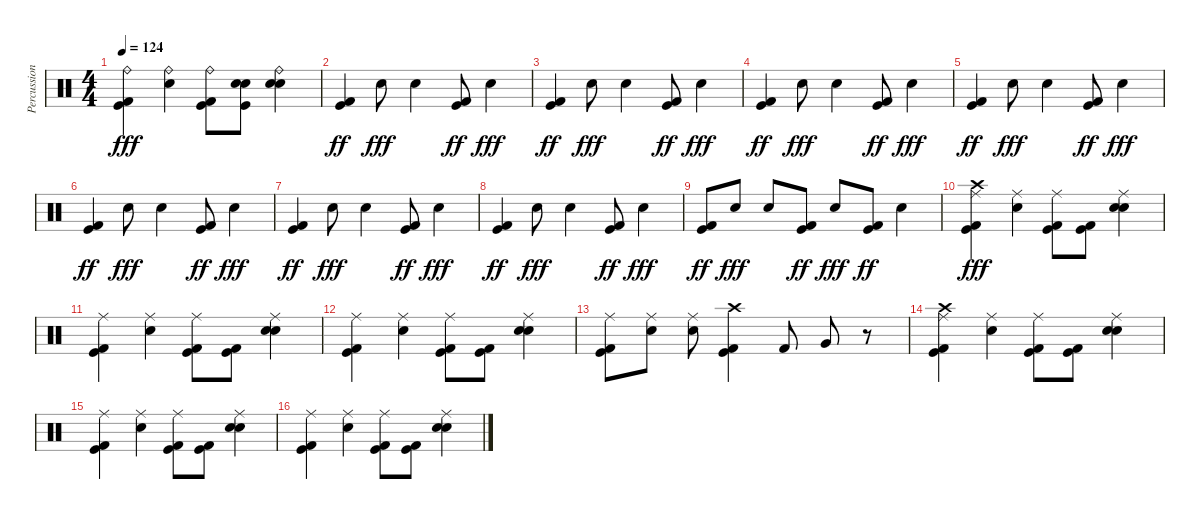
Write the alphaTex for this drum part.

\track ("Percussion" "Percussion") {instrument percussion}
\staff {score}
\articulation defaults
\ts (4 4)
\tempo 124
\clef neutral
\ks c
("Ride (bell)" "Kick (hit) 2" "Kick (hit)").4{dy fff} ("Ride (bell)" "Snare (hit) 2").4 ("Ride (bell)" "Kick (hit) 2" "Kick (hit)").8 ("Snare (hit) 2" "Kick (hit)" "Electric Snare (hit)").8 ("Ride (bell)" "Snare (hit) 2" "Electric Snare (hit)").4 |
("Kick (hit) 2" "Kick (hit)").4{dy ff} "Hand Clap (hit)".8{dy fff} "Hand Clap (hit)".4 ("Kick (hit) 2" "Kick (hit)").8{dy ff} "Hand Clap (hit)".4{dy fff} |
("Kick (hit) 2" "Kick (hit)").4{dy ff} "Hand Clap (hit)".8{dy fff} "Hand Clap (hit)".4 ("Kick (hit) 2" "Kick (hit)").8{dy ff} "Hand Clap (hit)".4{dy fff} |
("Kick (hit) 2" "Kick (hit)").4{dy ff} "Hand Clap (hit)".8{dy fff} "Hand Clap (hit)".4 ("Kick (hit) 2" "Kick (hit)").8{dy ff} "Hand Clap (hit)".4{dy fff} |
("Kick (hit) 2" "Kick (hit)").4{dy ff} "Hand Clap (hit)".8{dy fff} "Hand Clap (hit)".4 ("Kick (hit) 2" "Kick (hit)").8{dy ff} "Hand Clap (hit)".4{dy fff} |
("Kick (hit) 2" "Kick (hit)").4{dy ff} "Hand Clap (hit)".8{dy fff} "Hand Clap (hit)".4 ("Kick (hit) 2" "Kick (hit)").8{dy ff} "Hand Clap (hit)".4{dy fff} |
("Kick (hit) 2" "Kick (hit)").4{dy ff} "Hand Clap (hit)".8{dy fff} "Hand Clap (hit)".4 ("Kick (hit) 2" "Kick (hit)").8{dy ff} "Hand Clap (hit)".4{dy fff} |
("Kick (hit) 2" "Kick (hit)").4{dy ff} "Hand Clap (hit)".8{dy fff} "Hand Clap (hit)".4 ("Kick (hit) 2" "Kick (hit)").8{dy ff} "Hand Clap (hit)".4{dy fff} |
("Kick (hit) 2" "Kick (hit)").8{dy ff} "Hand Clap (hit)".8{dy fff} "Hand Clap (hit)".8 ("Kick (hit) 2" "Kick (hit)").8{dy ff} "Hand Clap (hit)".8{dy fff} ("Kick (hit) 2" "Kick (hit)").8{dy ff} "Hand Clap (hit)".4 |
("Ride (middle)" "Kick (hit) 2" "Kick (hit)" "Crash high (hit)").4{dy fff} ("Ride (middle)" "Snare (hit) 2").4 ("Ride (middle)" "Kick (hit) 2" "Kick (hit)").8 ("Kick (hit) 2" "Kick (hit)").8 ("Ride (middle)" "Snare (hit) 2" "Electric Snare (hit)").4 |
("Ride (middle)" "Kick (hit) 2" "Kick (hit)").4 ("Ride (middle)" "Snare (hit) 2").4 ("Ride (middle)" "Kick (hit) 2" "Kick (hit)").8 ("Kick (hit) 2" "Kick (hit)").8 ("Ride (middle)" "Snare (hit) 2" "Electric Snare (hit)").4 |
("Ride (middle)" "Kick (hit) 2" "Kick (hit)").4 ("Ride (middle)" "Snare (hit) 2").4 ("Ride (middle)" "Kick (hit) 2" "Kick (hit)").8 ("Kick (hit) 2" "Kick (hit)").8 ("Ride (middle)" "Snare (hit) 2" "Electric Snare (hit)").4 |
("Ride (middle)" "Kick (hit) 2" "Kick (hit)").8 ("Ride (middle)" "Snare (hit) 2").8 ("Ride (middle)" "Snare (hit) 2").8 ("Crash high (hit)" "Kick (hit) 2" "Kick (hit)").4 "Kick (hit) 2".8 "Very Low Tom (hit)".8 r.8 |
("Ride (middle)" "Kick (hit) 2" "Kick (hit)" "Crash high (hit)").4 ("Ride (middle)" "Snare (hit) 2").4 ("Ride (middle)" "Kick (hit) 2" "Kick (hit)").8 ("Kick (hit) 2" "Kick (hit)").8 ("Ride (middle)" "Snare (hit) 2" "Electric Snare (hit)").4 |
("Ride (middle)" "Kick (hit) 2" "Kick (hit)").4 ("Ride (middle)" "Snare (hit) 2").4 ("Ride (middle)" "Kick (hit) 2" "Kick (hit)").8 ("Kick (hit) 2" "Kick (hit)").8 ("Ride (middle)" "Snare (hit) 2" "Electric Snare (hit)").4 |
("Ride (middle)" "Kick (hit) 2" "Kick (hit)").4 ("Ride (middle)" "Snare (hit) 2").4 ("Ride (middle)" "Kick (hit) 2" "Kick (hit)").8 ("Kick (hit) 2" "Kick (hit)").8 ("Ride (middle)" "Snare (hit) 2" "Electric Snare (hit)").4
